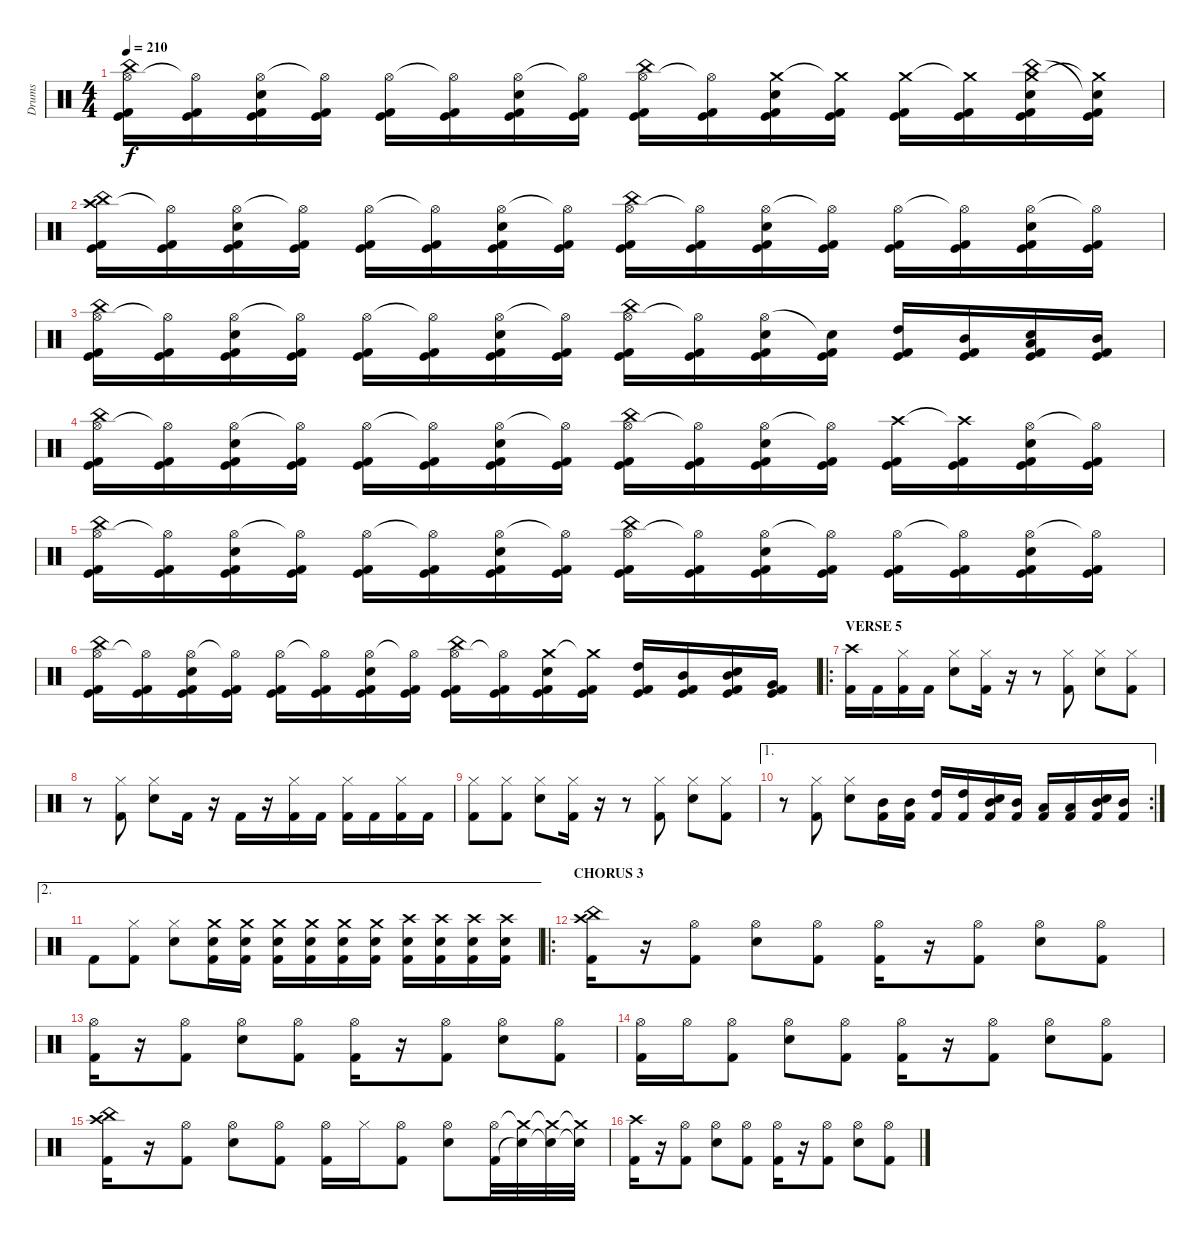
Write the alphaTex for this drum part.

\track ("Drums" "Drums") {instrument percussion}
\staff {score}
\articulation defaults
\ts (4 4)
\tempo 210
\clef neutral
\ks c
("Hi-Hat (open)" "China (hit)" "Kick (hit)" "Kick (hit) 2").16{dy f} ("Hi-Hat (open)"{t} "Kick (hit)" "Kick (hit) 2").16 ("Hi-Hat (open)" "Electric Snare (hit)" "Kick (hit)" "Kick (hit) 2").16 ("Hi-Hat (open)"{t} "Kick (hit)" "Kick (hit) 2").16 ("Hi-Hat (open)" "Kick (hit)" "Kick (hit) 2").16 ("Hi-Hat (open)"{t} "Kick (hit)" "Kick (hit) 2").16 ("Hi-Hat (open)" "Electric Snare (hit)" "Kick (hit)" "Kick (hit) 2").16 ("Hi-Hat (open)"{t} "Kick (hit)" "Kick (hit) 2").16 ("Hi-Hat (open)" "China (hit)" "Kick (hit)" "Kick (hit) 2").16 ("Hi-Hat (open)"{t} "Kick (hit)" "Kick (hit) 2").16 ("Crash medium (hit)" "Electric Snare (hit)" "Kick (hit)" "Kick (hit) 2").16 ("Crash medium (hit)"{t} "Kick (hit)" "Kick (hit) 2").16 ("Crash medium (hit)" "Kick (hit)" "Kick (hit) 2").16 ("Crash medium (hit)"{t} "Kick (hit)" "Kick (hit) 2").16 ("Crash medium (hit)" "China (hit)" "Electric Snare (hit)" "Kick (hit)" "Kick (hit) 2").16 ("Crash medium (hit)"{t} "Snare (hit)"{t} "Kick (hit)" "Kick (hit) 2").16 |
("Crash high (hit)" "China (hit)" "Kick (hit)" "Kick (hit) 2").16 ("Hi-Hat (open)"{t} "Kick (hit)" "Kick (hit) 2").16 ("Hi-Hat (open)" "Electric Snare (hit)" "Kick (hit)" "Kick (hit) 2").16 ("Hi-Hat (open)"{t} "Kick (hit)" "Kick (hit) 2").16 ("Hi-Hat (open)" "Kick (hit)" "Kick (hit) 2").16 ("Hi-Hat (open)"{t} "Kick (hit)" "Kick (hit) 2").16 ("Hi-Hat (open)" "Electric Snare (hit)" "Kick (hit)" "Kick (hit) 2").16 ("Hi-Hat (open)"{t} "Kick (hit)" "Kick (hit) 2").16 ("Hi-Hat (open)" "China (hit)" "Kick (hit)" "Kick (hit) 2").16 ("Hi-Hat (open)"{t} "Kick (hit)" "Kick (hit) 2").16 ("Hi-Hat (open)" "Electric Snare (hit)" "Kick (hit)" "Kick (hit) 2").16 ("Hi-Hat (open)"{t} "Kick (hit)" "Kick (hit) 2").16 ("Hi-Hat (open)" "Kick (hit)" "Kick (hit) 2").16 ("Hi-Hat (open)"{t} "Kick (hit)" "Kick (hit) 2").16 ("Hi-Hat (open)" "Electric Snare (hit)" "Kick (hit)" "Kick (hit) 2").16 ("Hi-Hat (open)"{t} "Kick (hit)" "Kick (hit) 2").16 |
("Hi-Hat (open)" "China (hit)" "Kick (hit)" "Kick (hit) 2").16 ("Hi-Hat (open)"{t} "Kick (hit)" "Kick (hit) 2").16 ("Hi-Hat (open)" "Electric Snare (hit)" "Kick (hit)" "Kick (hit) 2").16 ("Hi-Hat (open)"{t} "Kick (hit)" "Kick (hit) 2").16 ("Hi-Hat (open)" "Kick (hit)" "Kick (hit) 2").16 ("Hi-Hat (open)"{t} "Kick (hit)" "Kick (hit) 2").16 ("Hi-Hat (open)" "Electric Snare (hit)" "Kick (hit)" "Kick (hit) 2").16 ("Hi-Hat (open)"{t} "Kick (hit)" "Kick (hit) 2").16 ("Hi-Hat (open)" "China (hit)" "Kick (hit)" "Kick (hit) 2").16 ("Hi-Hat (open)"{t} "Kick (hit)" "Kick (hit) 2").16 ("Hi-Hat (open)" "Electric Snare (hit)" "Kick (hit)" "Kick (hit) 2").16 ("Snare (hit)"{t} "Kick (hit)" "Kick (hit) 2").16 ("High Tom (hit)" "Kick (hit)" "Kick (hit) 2").16 ("Mid Tom (hit)" "Kick (hit)" "Kick (hit) 2").16 ("Low Tom (hit)" "Electric Snare (hit)" "Kick (hit)" "Kick (hit) 2").16 ("Mid Tom (hit)" "Kick (hit)" "Kick (hit) 2").16 |
("Hi-Hat (open)" "China (hit)" "Kick (hit)" "Kick (hit) 2").16 ("Hi-Hat (open)"{t} "Kick (hit)" "Kick (hit) 2").16 ("Hi-Hat (open)" "Electric Snare (hit)" "Kick (hit)" "Kick (hit) 2").16 ("Hi-Hat (open)"{t} "Kick (hit)" "Kick (hit) 2").16 ("Hi-Hat (open)" "Kick (hit)" "Kick (hit) 2").16 ("Hi-Hat (open)"{t} "Kick (hit)" "Kick (hit) 2").16 ("Hi-Hat (open)" "Electric Snare (hit)" "Kick (hit)" "Kick (hit) 2").16 ("Hi-Hat (open)"{t} "Kick (hit)" "Kick (hit) 2").16 ("Hi-Hat (open)" "China (hit)" "Kick (hit)" "Kick (hit) 2").16 ("Hi-Hat (open)"{t} "Kick (hit)" "Kick (hit) 2").16 ("Hi-Hat (open)" "Electric Snare (hit)" "Kick (hit)" "Kick (hit) 2").16 ("Hi-Hat (open)"{t} "Kick (hit)" "Kick (hit) 2").16 ("Crash high (hit)" "Kick (hit)" "Kick (hit) 2").16 ("Crash high (hit)"{t} "Kick (hit)" "Kick (hit) 2").16 ("Hi-Hat (open)" "Electric Snare (hit)" "Kick (hit)" "Kick (hit) 2").16 ("Hi-Hat (open)"{t} "Kick (hit)" "Kick (hit) 2").16 |
("Hi-Hat (open)" "China (hit)" "Kick (hit)" "Kick (hit) 2").16 ("Hi-Hat (open)"{t} "Kick (hit)" "Kick (hit) 2").16 ("Hi-Hat (open)" "Electric Snare (hit)" "Kick (hit)" "Kick (hit) 2").16 ("Hi-Hat (open)"{t} "Kick (hit)" "Kick (hit) 2").16 ("Hi-Hat (open)" "Kick (hit)" "Kick (hit) 2").16 ("Hi-Hat (open)"{t} "Kick (hit)" "Kick (hit) 2").16 ("Hi-Hat (open)" "Electric Snare (hit)" "Kick (hit)" "Kick (hit) 2").16 ("Hi-Hat (open)"{t} "Kick (hit)" "Kick (hit) 2").16 ("Hi-Hat (open)" "China (hit)" "Kick (hit)" "Kick (hit) 2").16 ("Hi-Hat (open)"{t} "Kick (hit)" "Kick (hit) 2").16 ("Hi-Hat (open)" "Electric Snare (hit)" "Kick (hit)" "Kick (hit) 2").16 ("Hi-Hat (open)"{t} "Kick (hit)" "Kick (hit) 2").16 ("Hi-Hat (open)" "Kick (hit)" "Kick (hit) 2").16 ("Hi-Hat (open)"{t} "Kick (hit)" "Kick (hit) 2").16 ("Hi-Hat (open)" "Electric Snare (hit)" "Kick (hit)" "Kick (hit) 2").16 ("Hi-Hat (open)"{t} "Kick (hit)" "Kick (hit) 2").16 |
("Hi-Hat (open)" "China (hit)" "Kick (hit)" "Kick (hit) 2").16 ("Hi-Hat (open)"{t} "Kick (hit)" "Kick (hit) 2").16 ("Hi-Hat (open)" "Electric Snare (hit)" "Kick (hit)" "Kick (hit) 2").16 ("Hi-Hat (open)"{t} "Kick (hit)" "Kick (hit) 2").16 ("Hi-Hat (open)" "Kick (hit)" "Kick (hit) 2").16 ("Hi-Hat (open)"{t} "Kick (hit)" "Kick (hit) 2").16 ("Hi-Hat (open)" "Electric Snare (hit)" "Kick (hit)" "Kick (hit) 2").16 ("Hi-Hat (open)"{t} "Kick (hit)" "Kick (hit) 2").16 ("Hi-Hat (open)" "China (hit)" "Kick (hit)" "Kick (hit) 2").16 ("Hi-Hat (open)"{t} "Kick (hit)" "Kick (hit) 2").16 ("Crash medium (hit)" "Electric Snare (hit)" "Kick (hit)" "Kick (hit) 2").16 ("Crash medium (hit)"{t} "Kick (hit)" "Kick (hit) 2").16 ("High Tom (hit)" "Kick (hit)" "Kick (hit) 2").16 ("Mid Tom (hit)" "Kick (hit)" "Kick (hit) 2").16 ("Mid Tom (hit)" "Electric Snare (hit)" "Kick (hit)" "Kick (hit) 2").16 ("Very Low Tom (hit)" "Kick (hit)" "Kick (hit) 2").16 |
\ro
\section ("" "VERSE 5")
("Crash high (hit)" "Kick (hit) 2").16 "Kick (hit) 2".16 ("Hi-Hat (closed)" "Kick (hit) 2").16 "Kick (hit) 2".16 ("Hi-Hat (closed)" "Electric Snare (hit)").8 ("Hi-Hat (closed)" "Kick (hit) 2").16 r.16 r.8 ("Hi-Hat (closed)" "Kick (hit) 2").8 ("Hi-Hat (closed)" "Electric Snare (hit)").8 ("Hi-Hat (closed)" "Kick (hit) 2").8 |
r.8 ("Hi-Hat (closed)" "Kick (hit) 2").8 ("Hi-Hat (closed)" "Electric Snare (hit)").8 "Kick (hit) 2".16 r.16 "Kick (hit) 2".16 r.16 ("Hi-Hat (closed)" "Kick (hit) 2").16 "Kick (hit) 2".16 ("Hi-Hat (closed)" "Kick (hit) 2").16 "Kick (hit) 2".16 ("Hi-Hat (closed)" "Kick (hit) 2").16 "Kick (hit) 2".16 |
("Hi-Hat (closed)" "Kick (hit) 2").8 ("Hi-Hat (closed)" "Kick (hit) 2").8 ("Hi-Hat (closed)" "Electric Snare (hit)").8 ("Hi-Hat (closed)" "Kick (hit) 2").16 r.16 r.8 ("Hi-Hat (closed)" "Kick (hit) 2").8 ("Hi-Hat (closed)" "Electric Snare (hit)").8 ("Hi-Hat (closed)" "Kick (hit) 2").8 |
\ae 1
\rc 2
r.8 ("Hi-Hat (closed)" "Kick (hit) 2").8 ("Hi-Hat (closed)" "Electric Snare (hit)").8 ("Mid Tom (hit)" "Kick (hit) 2").16 ("Mid Tom (hit)" "Kick (hit) 2").16 ("High Tom (hit)" "Kick (hit) 2").16 ("High Tom (hit)" "Kick (hit) 2").16 ("Mid Tom (hit)" "Electric Snare (hit)" "Kick (hit) 2").16 ("Mid Tom (hit)" "Kick (hit) 2").16 ("Low Tom (hit)" "Kick (hit) 2").16 ("Low Tom (hit)" "Kick (hit) 2").16 ("Mid Tom (hit)" "Electric Snare (hit)" "Kick (hit) 2").16 ("Mid Tom (hit)" "Kick (hit) 2").16 |
\ae 2 "Kick (hit) 2".8
("Hi-Hat (closed)" "Kick (hit) 2").8 ("Hi-Hat (closed)" "Electric Snare (hit)").8 ("Crash medium (hit)" "Electric Snare (hit)" "Kick (hit) 2").16 ("Crash medium (hit)" "Electric Snare (hit)" "Kick (hit) 2").16 ("Crash medium (hit)" "Electric Snare (hit)" "Kick (hit) 2").16 ("Crash medium (hit)" "Electric Snare (hit)" "Kick (hit) 2").16 ("Crash medium (hit)" "Electric Snare (hit)" "Kick (hit) 2").16 ("Crash medium (hit)" "Electric Snare (hit)" "Kick (hit) 2").16 ("Crash high (hit)" "Electric Snare (hit)" "Kick (hit) 2").16 ("Crash high (hit)" "Electric Snare (hit)" "Kick (hit) 2").16 ("Crash high (hit)" "Electric Snare (hit)" "Kick (hit) 2").16 ("Crash high (hit)" "Electric Snare (hit)" "Kick (hit) 2").16 |
\ro
\section ("" "CHORUS 3")
("Crash high (hit)" "China (hit)" "Kick (hit) 2").16 r.16 ("Hi-Hat (open)" "Kick (hit) 2").8 ("Hi-Hat (open)" "Electric Snare (hit)").8 ("Hi-Hat (open)" "Kick (hit) 2").8 ("Hi-Hat (open)" "Kick (hit) 2").16 r.16 ("Hi-Hat (open)" "Kick (hit) 2").8 ("Hi-Hat (open)" "Electric Snare (hit)").8 ("Hi-Hat (open)" "Kick (hit) 2").8 |
("Hi-Hat (open)" "Kick (hit) 2").16 r.16 ("Hi-Hat (open)" "Kick (hit) 2").8 ("Hi-Hat (open)" "Electric Snare (hit)").8 ("Hi-Hat (open)" "Kick (hit) 2").8 ("Hi-Hat (open)" "Kick (hit) 2").16 r.16 ("Hi-Hat (open)" "Kick (hit) 2").8 ("Hi-Hat (open)" "Electric Snare (hit)").8 ("Hi-Hat (open)" "Kick (hit) 2").8 |
("Hi-Hat (open)" "Kick (hit) 2").16 "Hi-Hat (open)".16 ("Hi-Hat (open)" "Kick (hit) 2").8 ("Hi-Hat (open)" "Electric Snare (hit)").8 ("Hi-Hat (open)" "Kick (hit) 2").8 ("Hi-Hat (open)" "Kick (hit) 2").16 r.16 ("Hi-Hat (open)" "Kick (hit) 2").8 ("Hi-Hat (open)" "Electric Snare (hit)").8 ("Hi-Hat (open)" "Kick (hit) 2").8 |
("Crash high (hit)" "China (hit)" "Kick (hit) 2").16 r.16 ("Hi-Hat (open)" "Kick (hit) 2").8 ("Hi-Hat (open)" "Electric Snare (hit)").8 ("Hi-Hat (open)" "Kick (hit) 2").8 ("Hi-Hat (open)" "Kick (hit) 2").16 "Hi-Hat (closed)".16 ("Hi-Hat (open)" "Kick (hit) 2").8 ("Hi-Hat (open)" "Electric Snare (hit)").8 ("Hi-Hat (open)" "Kick (hit) 2").32 ("Crash medium (hit)"{t} "Electric Snare (hit)"{t}).32 ("Crash medium (hit)"{t} "Electric Snare (hit)"{t}).32 ("Crash medium (hit)"{t} "Electric Snare (hit)"{t}).32 |
("Crash high (hit)" "Kick (hit) 2").16 r.16 ("Hi-Hat (open)" "Kick (hit) 2").8 ("Hi-Hat (open)" "Electric Snare (hit)").8 ("Hi-Hat (open)" "Kick (hit) 2").8 ("Hi-Hat (open)" "Kick (hit) 2").16 r.16 ("Hi-Hat (open)" "Kick (hit) 2").8 ("Hi-Hat (open)" "Electric Snare (hit)").8 ("Hi-Hat (open)" "Kick (hit) 2").8
